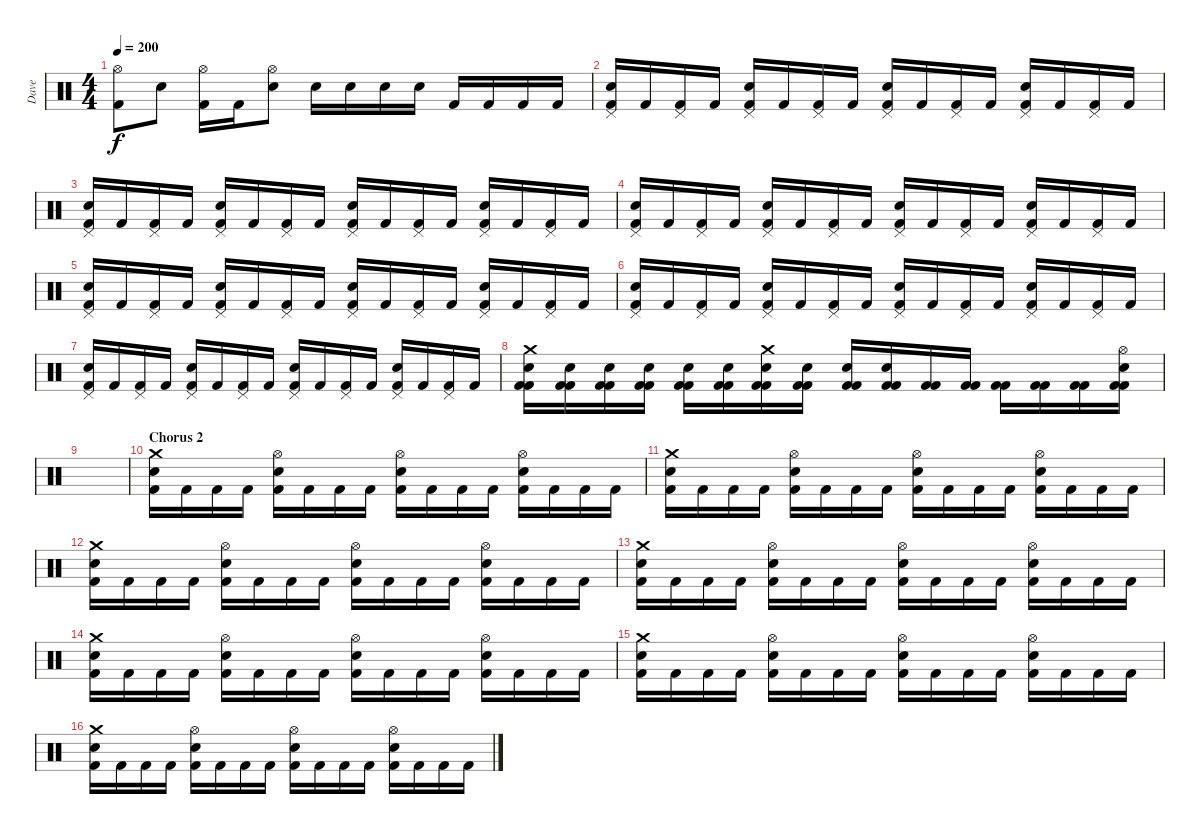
\track ("Dave" "Dave") {instrument percussion}
\staff {score}
\articulation defaults
\ts (4 4)
\tempo 200
\clef neutral
\ks c
("Hi-Hat (open)" "Kick (hit) 2").8{dy f} "Snare (hit) 2".8 ("Hi-Hat (open)" "Kick (hit) 2").16 "Kick (hit) 2".16 ("Hi-Hat (open)" "Snare (hit) 2").8 "Snare (hit) 2".16 "Snare (hit) 2".16 "Snare (hit) 2".16 "Snare (hit) 2".16 "Kick (hit) 2".16 "Kick (hit) 2".16 "Kick (hit) 2".16 "Kick (hit) 2".16 |
("Pedal Hi-Hat (hit)" "Snare (hit) 2" "Kick (hit) 2").16 "Kick (hit) 2".16 ("Pedal Hi-Hat (hit)" "Kick (hit) 2").16 "Kick (hit) 2".16 ("Pedal Hi-Hat (hit)" "Snare (hit) 2" "Kick (hit) 2").16 "Kick (hit) 2".16 ("Pedal Hi-Hat (hit)" "Kick (hit) 2").16 "Kick (hit) 2".16 ("Pedal Hi-Hat (hit)" "Snare (hit) 2" "Kick (hit) 2").16 "Kick (hit) 2".16 ("Pedal Hi-Hat (hit)" "Kick (hit) 2").16 "Kick (hit) 2".16 ("Pedal Hi-Hat (hit)" "Snare (hit) 2" "Kick (hit) 2").16 "Kick (hit) 2".16 ("Pedal Hi-Hat (hit)" "Kick (hit) 2").16 "Kick (hit) 2".16 |
("Pedal Hi-Hat (hit)" "Snare (hit) 2" "Kick (hit) 2").16 "Kick (hit) 2".16 ("Pedal Hi-Hat (hit)" "Kick (hit) 2").16 "Kick (hit) 2".16 ("Pedal Hi-Hat (hit)" "Snare (hit) 2" "Kick (hit) 2").16 "Kick (hit) 2".16 ("Pedal Hi-Hat (hit)" "Kick (hit) 2").16 "Kick (hit) 2".16 ("Pedal Hi-Hat (hit)" "Snare (hit) 2" "Kick (hit) 2").16 "Kick (hit) 2".16 ("Pedal Hi-Hat (hit)" "Kick (hit) 2").16 "Kick (hit) 2".16 ("Pedal Hi-Hat (hit)" "Snare (hit) 2" "Kick (hit) 2").16 "Kick (hit) 2".16 ("Pedal Hi-Hat (hit)" "Kick (hit) 2").16 "Kick (hit) 2".16 |
("Pedal Hi-Hat (hit)" "Snare (hit) 2" "Kick (hit) 2").16 "Kick (hit) 2".16 ("Pedal Hi-Hat (hit)" "Kick (hit) 2").16 "Kick (hit) 2".16 ("Pedal Hi-Hat (hit)" "Snare (hit) 2" "Kick (hit) 2").16 "Kick (hit) 2".16 ("Pedal Hi-Hat (hit)" "Kick (hit) 2").16 "Kick (hit) 2".16 ("Pedal Hi-Hat (hit)" "Snare (hit) 2" "Kick (hit) 2").16 "Kick (hit) 2".16 ("Pedal Hi-Hat (hit)" "Kick (hit) 2").16 "Kick (hit) 2".16 ("Pedal Hi-Hat (hit)" "Snare (hit) 2" "Kick (hit) 2").16 "Kick (hit) 2".16 ("Pedal Hi-Hat (hit)" "Kick (hit) 2").16 "Kick (hit) 2".16 |
("Pedal Hi-Hat (hit)" "Snare (hit) 2" "Kick (hit) 2").16 "Kick (hit) 2".16 ("Pedal Hi-Hat (hit)" "Kick (hit) 2").16 "Kick (hit) 2".16 ("Pedal Hi-Hat (hit)" "Snare (hit) 2" "Kick (hit) 2").16 "Kick (hit) 2".16 ("Pedal Hi-Hat (hit)" "Kick (hit) 2").16 "Kick (hit) 2".16 ("Pedal Hi-Hat (hit)" "Snare (hit) 2" "Kick (hit) 2").16 "Kick (hit) 2".16 ("Pedal Hi-Hat (hit)" "Kick (hit) 2").16 "Kick (hit) 2".16 ("Pedal Hi-Hat (hit)" "Snare (hit) 2" "Kick (hit) 2").16 "Kick (hit) 2".16 ("Pedal Hi-Hat (hit)" "Kick (hit) 2").16 "Kick (hit) 2".16 |
("Pedal Hi-Hat (hit)" "Snare (hit) 2" "Kick (hit) 2").16 "Kick (hit) 2".16 ("Pedal Hi-Hat (hit)" "Kick (hit) 2").16 "Kick (hit) 2".16 ("Pedal Hi-Hat (hit)" "Snare (hit) 2" "Kick (hit) 2").16 "Kick (hit) 2".16 ("Pedal Hi-Hat (hit)" "Kick (hit) 2").16 "Kick (hit) 2".16 ("Pedal Hi-Hat (hit)" "Snare (hit) 2" "Kick (hit) 2").16 "Kick (hit) 2".16 ("Pedal Hi-Hat (hit)" "Kick (hit) 2").16 "Kick (hit) 2".16 ("Pedal Hi-Hat (hit)" "Snare (hit) 2" "Kick (hit) 2").16 "Kick (hit) 2".16 ("Pedal Hi-Hat (hit)" "Kick (hit) 2").16 "Kick (hit) 2".16 |
("Pedal Hi-Hat (hit)" "Snare (hit) 2" "Kick (hit) 2").16 "Kick (hit) 2".16 ("Pedal Hi-Hat (hit)" "Kick (hit) 2").16 "Kick (hit) 2".16 ("Pedal Hi-Hat (hit)" "Snare (hit) 2" "Kick (hit) 2").16 "Kick (hit) 2".16 ("Pedal Hi-Hat (hit)" "Kick (hit) 2").16 "Kick (hit) 2".16 ("Pedal Hi-Hat (hit)" "Snare (hit) 2" "Kick (hit) 2").16 "Kick (hit) 2".16 ("Pedal Hi-Hat (hit)" "Kick (hit) 2").16 "Kick (hit) 2".16 ("Pedal Hi-Hat (hit)" "Snare (hit) 2" "Kick (hit) 2").16 "Kick (hit) 2".16 ("Pedal Hi-Hat (hit)" "Kick (hit) 2").16 "Kick (hit) 2".16 |
("Crash medium (hit)" "Snare (hit) 2" "Kick (hit) 2" "Kick (hit) 2").16 ("Snare (hit) 2" "Kick (hit) 2" "Kick (hit) 2").16 ("Snare (hit) 2" "Kick (hit) 2" "Kick (hit) 2").16 ("Snare (hit) 2" "Kick (hit) 2" "Kick (hit) 2").16 ("Snare (hit) 2" "Kick (hit) 2" "Kick (hit) 2").16 ("Snare (hit) 2" "Kick (hit) 2" "Kick (hit) 2").16 ("Crash medium (hit)" "Snare (hit) 2" "Kick (hit) 2" "Kick (hit) 2").16 ("Snare (hit) 2" "Kick (hit) 2" "Kick (hit) 2").16 ("Snare (hit) 2" "Kick (hit) 2" "Kick (hit) 2").16 ("Snare (hit) 2" "Kick (hit) 2" "Kick (hit) 2").16 ("Kick (hit) 2" "Kick (hit) 2").16 ("Kick (hit) 2" "Kick (hit) 2").16 ("Kick (hit) 2" "Kick (hit) 2").16 ("Kick (hit) 2" "Kick (hit) 2").16 ("Kick (hit) 2" "Kick (hit) 2").16 ("Hi-Hat (open)" "Snare (hit) 2" "Kick (hit) 2" "Kick (hit) 2").16 |
|
\section ("" "Chorus 2")
("Crash medium (hit)" "Snare (hit) 2" "Kick (hit) 2").16 "Kick (hit) 2".16 "Kick (hit) 2".16 "Kick (hit) 2".16 ("Hi-Hat (open)" "Snare (hit) 2" "Kick (hit) 2").16 "Kick (hit) 2".16 "Kick (hit) 2".16 "Kick (hit) 2".16 ("Hi-Hat (open)" "Snare (hit) 2" "Kick (hit) 2").16 "Kick (hit) 2".16 "Kick (hit) 2".16 "Kick (hit) 2".16 ("Hi-Hat (open)" "Snare (hit) 2" "Kick (hit) 2").16 "Kick (hit) 2".16 "Kick (hit) 2".16 "Kick (hit) 2".16 |
("Crash medium (hit)" "Snare (hit) 2" "Kick (hit) 2").16 "Kick (hit) 2".16 "Kick (hit) 2".16 "Kick (hit) 2".16 ("Hi-Hat (open)" "Snare (hit) 2" "Kick (hit) 2").16 "Kick (hit) 2".16 "Kick (hit) 2".16 "Kick (hit) 2".16 ("Hi-Hat (open)" "Snare (hit) 2" "Kick (hit) 2").16 "Kick (hit) 2".16 "Kick (hit) 2".16 "Kick (hit) 2".16 ("Hi-Hat (open)" "Snare (hit) 2" "Kick (hit) 2").16 "Kick (hit) 2".16 "Kick (hit) 2".16 "Kick (hit) 2".16 |
("Crash medium (hit)" "Snare (hit) 2" "Kick (hit) 2").16 "Kick (hit) 2".16 "Kick (hit) 2".16 "Kick (hit) 2".16 ("Hi-Hat (open)" "Snare (hit) 2" "Kick (hit) 2").16 "Kick (hit) 2".16 "Kick (hit) 2".16 "Kick (hit) 2".16 ("Hi-Hat (open)" "Snare (hit) 2" "Kick (hit) 2").16 "Kick (hit) 2".16 "Kick (hit) 2".16 "Kick (hit) 2".16 ("Hi-Hat (open)" "Snare (hit) 2" "Kick (hit) 2").16 "Kick (hit) 2".16 "Kick (hit) 2".16 "Kick (hit) 2".16 |
("Crash medium (hit)" "Snare (hit) 2" "Kick (hit) 2").16 "Kick (hit) 2".16 "Kick (hit) 2".16 "Kick (hit) 2".16 ("Hi-Hat (open)" "Snare (hit) 2" "Kick (hit) 2").16 "Kick (hit) 2".16 "Kick (hit) 2".16 "Kick (hit) 2".16 ("Hi-Hat (open)" "Snare (hit) 2" "Kick (hit) 2").16 "Kick (hit) 2".16 "Kick (hit) 2".16 "Kick (hit) 2".16 ("Hi-Hat (open)" "Snare (hit) 2" "Kick (hit) 2").16 "Kick (hit) 2".16 "Kick (hit) 2".16 "Kick (hit) 2".16 |
("Crash medium (hit)" "Snare (hit) 2" "Kick (hit) 2").16 "Kick (hit) 2".16 "Kick (hit) 2".16 "Kick (hit) 2".16 ("Hi-Hat (open)" "Snare (hit) 2" "Kick (hit) 2").16 "Kick (hit) 2".16 "Kick (hit) 2".16 "Kick (hit) 2".16 ("Hi-Hat (open)" "Snare (hit) 2" "Kick (hit) 2").16 "Kick (hit) 2".16 "Kick (hit) 2".16 "Kick (hit) 2".16 ("Hi-Hat (open)" "Snare (hit) 2" "Kick (hit) 2").16 "Kick (hit) 2".16 "Kick (hit) 2".16 "Kick (hit) 2".16 |
("Crash medium (hit)" "Snare (hit) 2" "Kick (hit) 2").16 "Kick (hit) 2".16 "Kick (hit) 2".16 "Kick (hit) 2".16 ("Hi-Hat (open)" "Snare (hit) 2" "Kick (hit) 2").16 "Kick (hit) 2".16 "Kick (hit) 2".16 "Kick (hit) 2".16 ("Hi-Hat (open)" "Snare (hit) 2" "Kick (hit) 2").16 "Kick (hit) 2".16 "Kick (hit) 2".16 "Kick (hit) 2".16 ("Hi-Hat (open)" "Snare (hit) 2" "Kick (hit) 2").16 "Kick (hit) 2".16 "Kick (hit) 2".16 "Kick (hit) 2".16 |
("Crash medium (hit)" "Snare (hit) 2" "Kick (hit) 2").16 "Kick (hit) 2".16 "Kick (hit) 2".16 "Kick (hit) 2".16 ("Hi-Hat (open)" "Snare (hit) 2" "Kick (hit) 2").16 "Kick (hit) 2".16 "Kick (hit) 2".16 "Kick (hit) 2".16 ("Hi-Hat (open)" "Snare (hit) 2" "Kick (hit) 2").16 "Kick (hit) 2".16 "Kick (hit) 2".16 "Kick (hit) 2".16 ("Hi-Hat (open)" "Snare (hit) 2" "Kick (hit) 2").16 "Kick (hit) 2".16 "Kick (hit) 2".16 "Kick (hit) 2".16
